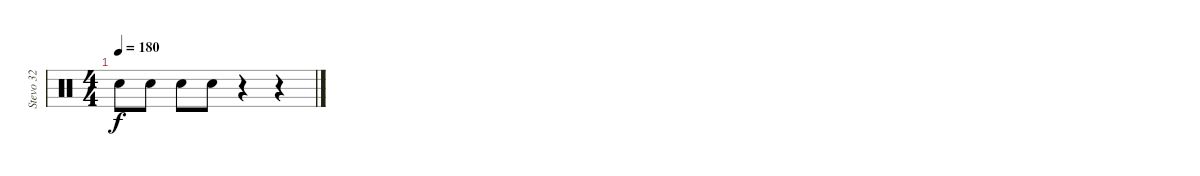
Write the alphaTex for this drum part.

\track ("Stevo 32" "Stevo 32") {instrument percussion}
\staff {score}
\articulation defaults
\ts (4 4)
\tempo 180
\clef neutral
\ks c "Electric Snare (hit)".8{dy f} "Electric Snare (hit)".8 "Electric Snare (hit)".8 "Electric Snare (hit)".8
r.4 r.4
